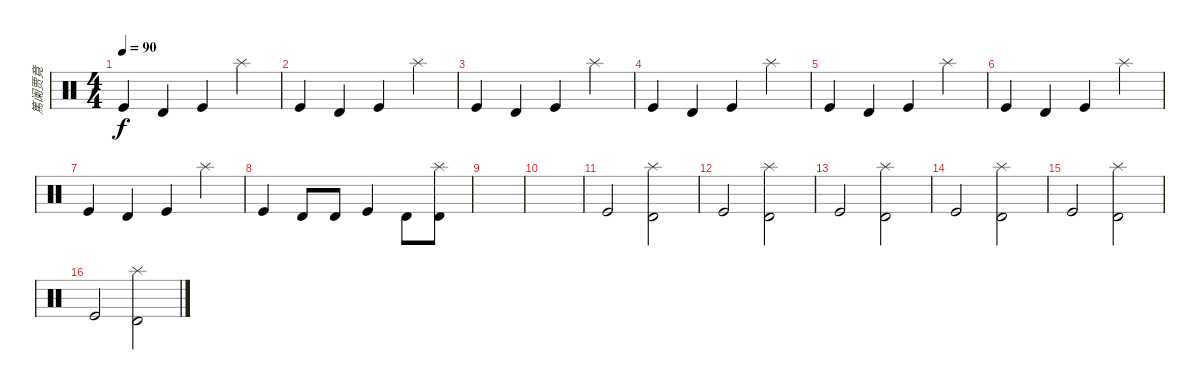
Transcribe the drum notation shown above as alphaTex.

\track ("篤阑贾竟" "篤阑贾竟") {instrument percussion}
\staff {score}
\articulation defaults
\ts (4 4)
\tempo 90
\clef neutral
\ks c "Kick (hit)".4{dy f} "Timbale high (hit)".4 "Kick (hit)".4 "Splash (hit)".4
|
"Kick (hit)".4 "Timbale high (hit)".4 "Kick (hit)".4 "Splash (hit)".4 |
"Kick (hit)".4 "Timbale high (hit)".4 "Kick (hit)".4 "Splash (hit)".4 |
"Kick (hit)".4 "Timbale high (hit)".4 "Kick (hit)".4 "Splash (hit)".4 |
"Kick (hit)".4 "Timbale high (hit)".4 "Kick (hit)".4 "Splash (hit)".4 |
"Kick (hit)".4 "Timbale high (hit)".4 "Kick (hit)".4 "Splash (hit)".4 |
"Kick (hit)".4 "Timbale high (hit)".4 "Kick (hit)".4 "Splash (hit)".4 |
"Kick (hit)".4 "Timbale high (hit)".8 "Timbale high (hit)".8 "Kick (hit)".4 "Timbale high (hit)".8 ("Timbale high (hit)" "Splash (hit)").8 |
|
|
"Kick (hit)".2 ("Timbale high (hit)" "Splash (hit)").2 |
"Kick (hit)".2 ("Timbale high (hit)" "Splash (hit)").2 |
"Kick (hit)".2 ("Timbale high (hit)" "Splash (hit)").2 |
"Kick (hit)".2 ("Timbale high (hit)" "Splash (hit)").2 |
"Kick (hit)".2 ("Timbale high (hit)" "Splash (hit)").2 |
"Kick (hit)".2 ("Timbale high (hit)" "Splash (hit)").2
